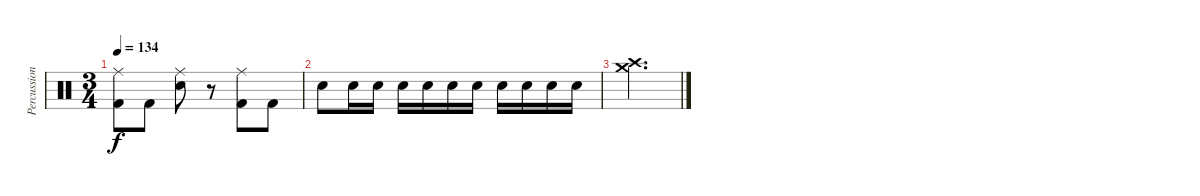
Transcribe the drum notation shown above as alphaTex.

\track ("Percussion" "Percussion") {instrument percussion}
\staff {score}
\articulation defaults
\ts (3 4)
\tempo 134
\clef neutral
\ks c
("Ride (middle)" "Kick (hit) 2").8{dy f} "Kick (hit) 2".8 ("Ride (middle)" "Snare (hit) 2").8 r.8 ("Ride (middle)" "Kick (hit) 2").8 "Kick (hit) 2".8 |
"Snare (hit) 2".8 "Snare (hit) 2".16 "Snare (hit) 2".16 "Snare (hit) 2".16 "Snare (hit) 2".16 "Snare (hit) 2".16 "Snare (hit) 2".16 "Snare (hit) 2".16 "Snare (hit) 2".16 "Snare (hit) 2".16 "Snare (hit) 2".16 |
("Crash medium (hit)" "Crash high (hit)").2{d}
